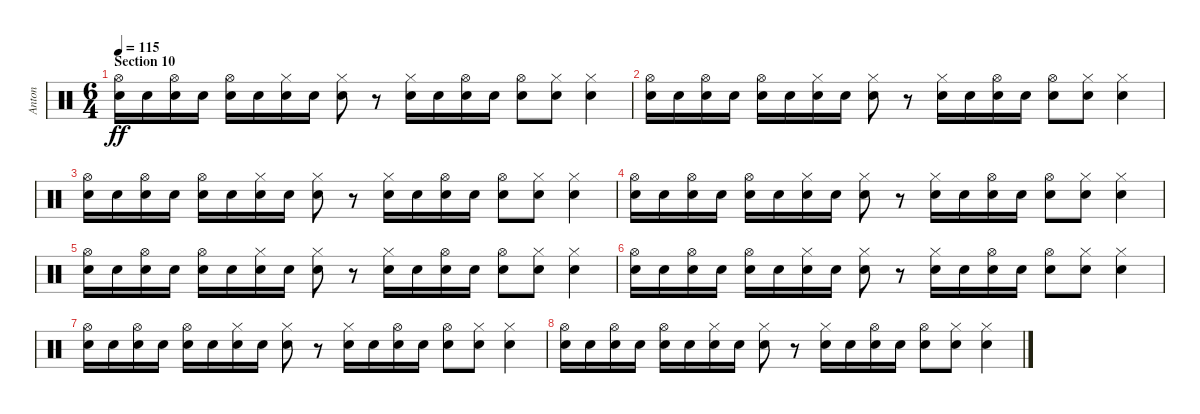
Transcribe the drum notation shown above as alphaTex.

\track ("Anton" "Anton") {instrument percussion}
\staff {score}
\articulation defaults
\ts (6 4)
\section ("" "Section 10")
\tempo 115
\clef neutral
\ks c
("Hi-Hat (open)" "Electric Snare (hit)").16{dy ff} "Electric Snare (hit)".16 ("Hi-Hat (open)" "Electric Snare (hit)").16 "Electric Snare (hit)".16 ("Hi-Hat (open)" "Electric Snare (hit)").16 "Electric Snare (hit)".16 ("Hi-Hat (closed)" "Electric Snare (hit)").16 "Electric Snare (hit)".16 ("Hi-Hat (closed)" "Electric Snare (hit)").8 r.8 ("Hi-Hat (closed)" "Electric Snare (hit)").16 "Electric Snare (hit)".16 ("Hi-Hat (open)" "Electric Snare (hit)").16 "Electric Snare (hit)".16 ("Hi-Hat (open)" "Electric Snare (hit)").8 ("Hi-Hat (closed)" "Electric Snare (hit)").8 ("Hi-Hat (closed)" "Electric Snare (hit)").4 |
("Hi-Hat (open)" "Electric Snare (hit)").16 "Electric Snare (hit)".16 ("Hi-Hat (open)" "Electric Snare (hit)").16 "Electric Snare (hit)".16 ("Hi-Hat (open)" "Electric Snare (hit)").16 "Electric Snare (hit)".16 ("Hi-Hat (closed)" "Electric Snare (hit)").16 "Electric Snare (hit)".16 ("Hi-Hat (closed)" "Electric Snare (hit)").8 r.8 ("Hi-Hat (closed)" "Electric Snare (hit)").16 "Electric Snare (hit)".16 ("Hi-Hat (open)" "Electric Snare (hit)").16 "Electric Snare (hit)".16 ("Hi-Hat (open)" "Electric Snare (hit)").8 ("Hi-Hat (closed)" "Electric Snare (hit)").8 ("Hi-Hat (closed)" "Electric Snare (hit)").4 |
("Hi-Hat (open)" "Electric Snare (hit)").16 "Electric Snare (hit)".16 ("Hi-Hat (open)" "Electric Snare (hit)").16 "Electric Snare (hit)".16 ("Hi-Hat (open)" "Electric Snare (hit)").16 "Electric Snare (hit)".16 ("Hi-Hat (closed)" "Electric Snare (hit)").16 "Electric Snare (hit)".16 ("Hi-Hat (closed)" "Electric Snare (hit)").8 r.8 ("Hi-Hat (closed)" "Electric Snare (hit)").16 "Electric Snare (hit)".16 ("Hi-Hat (open)" "Electric Snare (hit)").16 "Electric Snare (hit)".16 ("Hi-Hat (open)" "Electric Snare (hit)").8 ("Hi-Hat (closed)" "Electric Snare (hit)").8 ("Hi-Hat (closed)" "Electric Snare (hit)").4 |
("Hi-Hat (open)" "Electric Snare (hit)").16 "Electric Snare (hit)".16 ("Hi-Hat (open)" "Electric Snare (hit)").16 "Electric Snare (hit)".16 ("Hi-Hat (open)" "Electric Snare (hit)").16 "Electric Snare (hit)".16 ("Hi-Hat (closed)" "Electric Snare (hit)").16 "Electric Snare (hit)".16 ("Hi-Hat (closed)" "Electric Snare (hit)").8 r.8 ("Hi-Hat (closed)" "Electric Snare (hit)").16 "Electric Snare (hit)".16 ("Hi-Hat (open)" "Electric Snare (hit)").16 "Electric Snare (hit)".16 ("Hi-Hat (open)" "Electric Snare (hit)").8 ("Hi-Hat (closed)" "Electric Snare (hit)").8 ("Hi-Hat (closed)" "Electric Snare (hit)").4 |
("Hi-Hat (open)" "Electric Snare (hit)").16 "Electric Snare (hit)".16 ("Hi-Hat (open)" "Electric Snare (hit)").16 "Electric Snare (hit)".16 ("Hi-Hat (open)" "Electric Snare (hit)").16 "Electric Snare (hit)".16 ("Hi-Hat (closed)" "Electric Snare (hit)").16 "Electric Snare (hit)".16 ("Hi-Hat (closed)" "Electric Snare (hit)").8 r.8 ("Hi-Hat (closed)" "Electric Snare (hit)").16 "Electric Snare (hit)".16 ("Hi-Hat (open)" "Electric Snare (hit)").16 "Electric Snare (hit)".16 ("Hi-Hat (open)" "Electric Snare (hit)").8 ("Hi-Hat (closed)" "Electric Snare (hit)").8 ("Hi-Hat (closed)" "Electric Snare (hit)").4 |
("Hi-Hat (open)" "Electric Snare (hit)").16 "Electric Snare (hit)".16 ("Hi-Hat (open)" "Electric Snare (hit)").16 "Electric Snare (hit)".16 ("Hi-Hat (open)" "Electric Snare (hit)").16 "Electric Snare (hit)".16 ("Hi-Hat (closed)" "Electric Snare (hit)").16 "Electric Snare (hit)".16 ("Hi-Hat (closed)" "Electric Snare (hit)").8 r.8 ("Hi-Hat (closed)" "Electric Snare (hit)").16 "Electric Snare (hit)".16 ("Hi-Hat (open)" "Electric Snare (hit)").16 "Electric Snare (hit)".16 ("Hi-Hat (open)" "Electric Snare (hit)").8 ("Hi-Hat (closed)" "Electric Snare (hit)").8 ("Hi-Hat (closed)" "Electric Snare (hit)").4 |
("Hi-Hat (open)" "Electric Snare (hit)").16 "Electric Snare (hit)".16 ("Hi-Hat (open)" "Electric Snare (hit)").16 "Electric Snare (hit)".16 ("Hi-Hat (open)" "Electric Snare (hit)").16 "Electric Snare (hit)".16 ("Hi-Hat (closed)" "Electric Snare (hit)").16 "Electric Snare (hit)".16 ("Hi-Hat (closed)" "Electric Snare (hit)").8 r.8 ("Hi-Hat (closed)" "Electric Snare (hit)").16 "Electric Snare (hit)".16 ("Hi-Hat (open)" "Electric Snare (hit)").16 "Electric Snare (hit)".16 ("Hi-Hat (open)" "Electric Snare (hit)").8 ("Hi-Hat (closed)" "Electric Snare (hit)").8 ("Hi-Hat (closed)" "Electric Snare (hit)").4 |
("Hi-Hat (open)" "Electric Snare (hit)").16 "Electric Snare (hit)".16 ("Hi-Hat (open)" "Electric Snare (hit)").16 "Electric Snare (hit)".16 ("Hi-Hat (open)" "Electric Snare (hit)").16 "Electric Snare (hit)".16 ("Hi-Hat (closed)" "Electric Snare (hit)").16 "Electric Snare (hit)".16 ("Hi-Hat (closed)" "Electric Snare (hit)").8 r.8 ("Hi-Hat (closed)" "Electric Snare (hit)").16 "Electric Snare (hit)".16 ("Hi-Hat (open)" "Electric Snare (hit)").16 "Electric Snare (hit)".16 ("Hi-Hat (open)" "Electric Snare (hit)").8 ("Hi-Hat (closed)" "Electric Snare (hit)").8 ("Hi-Hat (closed)" "Electric Snare (hit)").4
